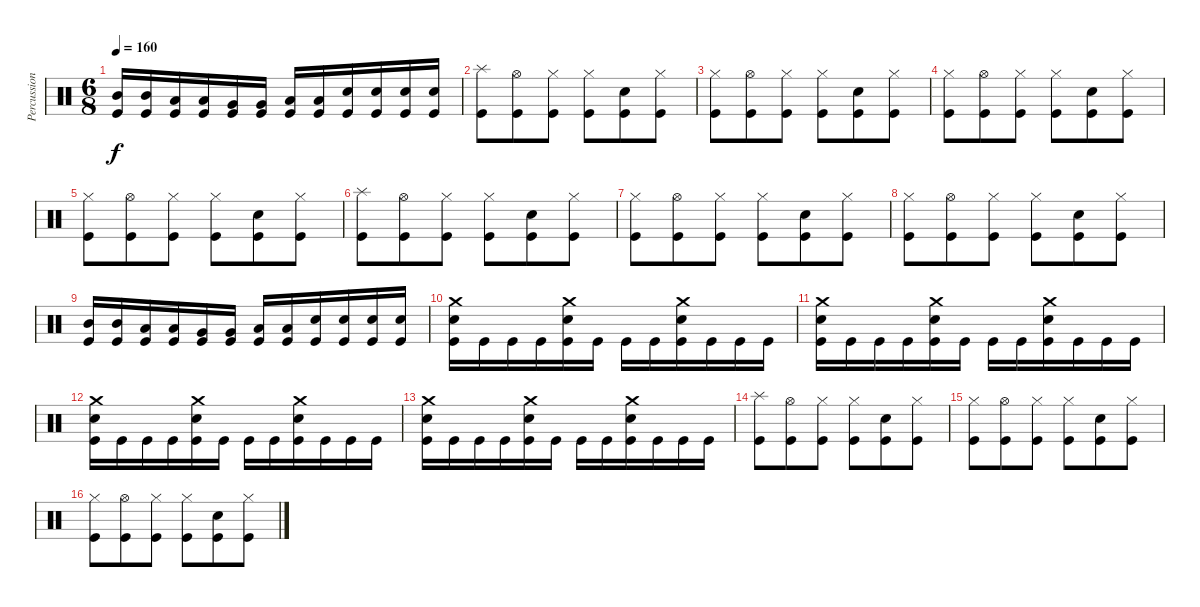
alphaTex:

\track ("Percussion" "Percussion") {instrument percussion}
\staff {score}
\articulation defaults
\ts (6 8)
\tempo 160
\clef neutral
\ks c
("Mid Tom (hit)" "Kick (hit)").16{dy f} ("Mid Tom (hit)" "Kick (hit)").16 ("Low Tom (hit)" "Kick (hit)").16 ("Low Tom (hit)" "Kick (hit)").16 ("Very Low Tom (hit)" "Kick (hit)").16 ("Very Low Tom (hit)" "Kick (hit)").16 ("Low Floor Tom (hit)" "Kick (hit)").16 ("Low Floor Tom (hit)" "Kick (hit)").16 ("Snare (hit) 2" "Kick (hit)").16 ("Snare (hit) 2" "Kick (hit)").16 ("Snare (hit) 2" "Kick (hit)").16 ("Snare (hit) 2" "Kick (hit)").16 |
("Splash (hit)" "Kick (hit)").8 ("Hi-Hat (open)" "Kick (hit)").8 ("Hi-Hat (closed)" "Kick (hit)").8 ("Hi-Hat (closed)" "Kick (hit)").8 ("Snare (hit) 2" "Kick (hit)").8 ("Hi-Hat (closed)" "Kick (hit)").8 |
("Hi-Hat (closed)" "Kick (hit)").8 ("Hi-Hat (open)" "Kick (hit)").8 ("Hi-Hat (closed)" "Kick (hit)").8 ("Hi-Hat (closed)" "Kick (hit)").8 ("Snare (hit) 2" "Kick (hit)").8 ("Hi-Hat (closed)" "Kick (hit)").8 |
("Hi-Hat (closed)" "Kick (hit)").8 ("Hi-Hat (open)" "Kick (hit)").8 ("Hi-Hat (closed)" "Kick (hit)").8 ("Hi-Hat (closed)" "Kick (hit)").8 ("Snare (hit) 2" "Kick (hit)").8 ("Hi-Hat (closed)" "Kick (hit)").8 |
("Hi-Hat (closed)" "Kick (hit)").8 ("Hi-Hat (open)" "Kick (hit)").8 ("Hi-Hat (closed)" "Kick (hit)").8 ("Hi-Hat (closed)" "Kick (hit)").8 ("Snare (hit) 2" "Kick (hit)").8 ("Hi-Hat (closed)" "Kick (hit)").8 |
("Splash (hit)" "Kick (hit)").8 ("Hi-Hat (open)" "Kick (hit)").8 ("Hi-Hat (closed)" "Kick (hit)").8 ("Hi-Hat (closed)" "Kick (hit)").8 ("Snare (hit) 2" "Kick (hit)").8 ("Hi-Hat (closed)" "Kick (hit)").8 |
("Hi-Hat (closed)" "Kick (hit)").8 ("Hi-Hat (open)" "Kick (hit)").8 ("Hi-Hat (closed)" "Kick (hit)").8 ("Hi-Hat (closed)" "Kick (hit)").8 ("Snare (hit) 2" "Kick (hit)").8 ("Hi-Hat (closed)" "Kick (hit)").8 |
("Hi-Hat (closed)" "Kick (hit)").8 ("Hi-Hat (open)" "Kick (hit)").8 ("Hi-Hat (closed)" "Kick (hit)").8 ("Hi-Hat (closed)" "Kick (hit)").8 ("Snare (hit) 2" "Kick (hit)").8 ("Hi-Hat (closed)" "Kick (hit)").8 |
("Mid Tom (hit)" "Kick (hit)").16 ("Mid Tom (hit)" "Kick (hit)").16 ("Low Tom (hit)" "Kick (hit)").16 ("Low Tom (hit)" "Kick (hit)").16 ("Very Low Tom (hit)" "Kick (hit)").16 ("Very Low Tom (hit)" "Kick (hit)").16 ("Low Floor Tom (hit)" "Kick (hit)").16 ("Low Floor Tom (hit)" "Kick (hit)").16 ("Snare (hit) 2" "Kick (hit)").16 ("Snare (hit) 2" "Kick (hit)").16 ("Snare (hit) 2" "Kick (hit)").16 ("Snare (hit) 2" "Kick (hit)").16 |
("Crash medium (hit)" "Snare (hit) 2" "Kick (hit)").16 "Kick (hit)".16 "Kick (hit)".16 "Kick (hit)".16 ("Crash medium (hit)" "Snare (hit) 2" "Kick (hit)").16 "Kick (hit)".16 "Kick (hit)".16 "Kick (hit)".16 ("Crash medium (hit)" "Snare (hit) 2" "Kick (hit)").16 "Kick (hit)".16 "Kick (hit)".16 "Kick (hit)".16 |
("Crash medium (hit)" "Snare (hit) 2" "Kick (hit)").16 "Kick (hit)".16 "Kick (hit)".16 "Kick (hit)".16 ("Crash medium (hit)" "Snare (hit) 2" "Kick (hit)").16 "Kick (hit)".16 "Kick (hit)".16 "Kick (hit)".16 ("Crash medium (hit)" "Snare (hit) 2" "Kick (hit)").16 "Kick (hit)".16 "Kick (hit)".16 "Kick (hit)".16 |
("Crash medium (hit)" "Snare (hit) 2" "Kick (hit)").16 "Kick (hit)".16 "Kick (hit)".16 "Kick (hit)".16 ("Crash medium (hit)" "Snare (hit) 2" "Kick (hit)").16 "Kick (hit)".16 "Kick (hit)".16 "Kick (hit)".16 ("Crash medium (hit)" "Snare (hit) 2" "Kick (hit)").16 "Kick (hit)".16 "Kick (hit)".16 "Kick (hit)".16 |
("Crash medium (hit)" "Snare (hit) 2" "Kick (hit)").16 "Kick (hit)".16 "Kick (hit)".16 "Kick (hit)".16 ("Crash medium (hit)" "Snare (hit) 2" "Kick (hit)").16 "Kick (hit)".16 "Kick (hit)".16 "Kick (hit)".16 ("Crash medium (hit)" "Snare (hit) 2" "Kick (hit)").16 "Kick (hit)".16 "Kick (hit)".16 "Kick (hit)".16 |
("Splash (hit)" "Kick (hit)").8 ("Hi-Hat (open)" "Kick (hit)").8 ("Hi-Hat (closed)" "Kick (hit)").8 ("Hi-Hat (closed)" "Kick (hit)").8 ("Snare (hit) 2" "Kick (hit)").8 ("Hi-Hat (closed)" "Kick (hit)").8 |
("Hi-Hat (closed)" "Kick (hit)").8 ("Hi-Hat (open)" "Kick (hit)").8 ("Hi-Hat (closed)" "Kick (hit)").8 ("Hi-Hat (closed)" "Kick (hit)").8 ("Snare (hit) 2" "Kick (hit)").8 ("Hi-Hat (closed)" "Kick (hit)").8 |
("Hi-Hat (closed)" "Kick (hit)").8 ("Hi-Hat (open)" "Kick (hit)").8 ("Hi-Hat (closed)" "Kick (hit)").8 ("Hi-Hat (closed)" "Kick (hit)").8 ("Snare (hit) 2" "Kick (hit)").8 ("Hi-Hat (closed)" "Kick (hit)").8
